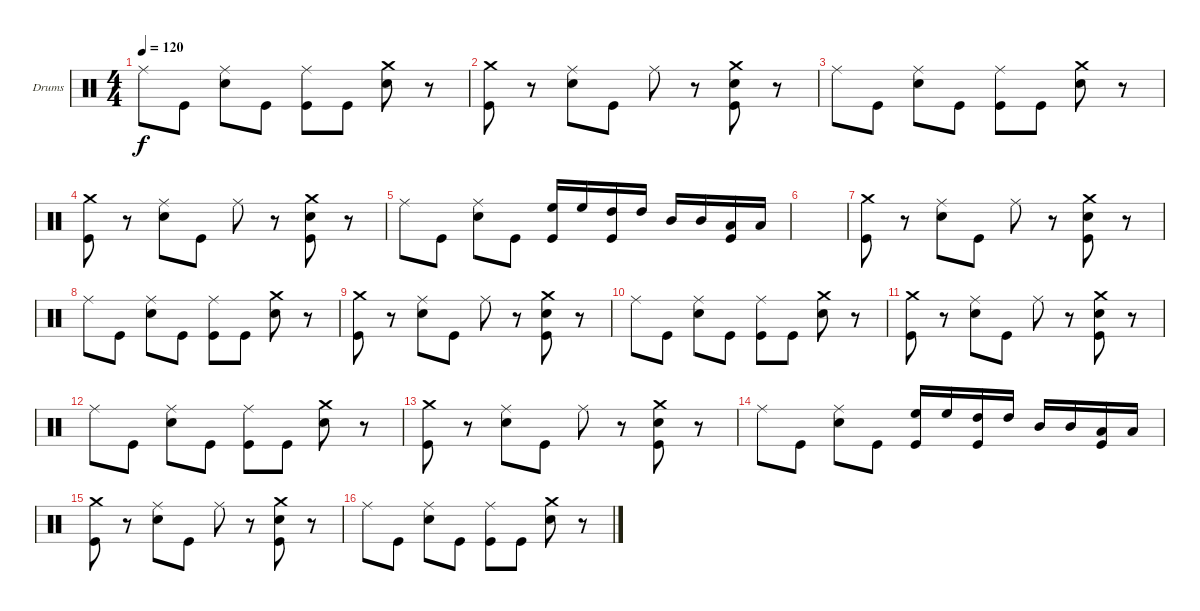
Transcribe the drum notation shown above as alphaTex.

\defaultSystemsLayout 4
\bracketExtendMode groupsimilarinstruments
\firstSystemTrackNameOrientation horizontal
\otherSystemsTrackNameOrientation horizontal
\track ("Drumkit" "Drums") {instrument percussion}
\staff {score}
\articulation defaults
\ts (4 4)
\tempo 120
\clef neutral
\scale
0.333333
\ks c "Ride (middle)".8{dy f} "Kick (hit)".8
("Ride (middle)" "Snare (hit) 2").8 "Kick (hit)".8 ("Ride (middle)" "Kick (hit)").8 "Kick (hit)".8 ("Crash medium (hit)" "Snare (hit) 2").8 r.8 |
\scale
0.333333 ("Crash medium (hit)" "Kick (hit)").8 r.8 ("Ride (middle)" "Snare (hit) 2").8 "Kick (hit)".8 "Ride (middle)".8 r.8 ("Crash medium (hit)" "Snare (hit) 2" "Kick (hit)").8 r.8 |
\scale
0.333333 "Ride (middle)".8 "Kick (hit)".8 ("Ride (middle)" "Snare (hit) 2").8 "Kick (hit)".8 ("Ride (middle)" "Kick (hit)").8 "Kick (hit)".8 ("Crash medium (hit)" "Snare (hit) 2").8 r.8 |
\scale
0.333333 ("Crash medium (hit)" "Kick (hit)").8 r.8 ("Ride (middle)" "Snare (hit) 2").8 "Kick (hit)".8 "Ride (middle)".8 r.8 ("Crash medium (hit)" "Snare (hit) 2" "Kick (hit)").8 r.8 |
\scale
0.333333 "Ride (middle)".8 "Kick (hit)".8 ("Ride (middle)" "Snare (hit) 2").8 "Kick (hit)".8 ("High Floor Tom (hit)" "Kick (hit)").16 "High Floor Tom (hit)".16 ("High Tom (hit)" "Kick (hit)").16 "High Tom (hit)".16 "Mid Tom (hit)".16 "Mid Tom (hit)".16 ("Low Tom (hit)" "Kick (hit)").16 "Low Tom (hit)".16 |
\scale
0.333333 |
\scale
0.333333 ("Crash medium (hit)" "Kick (hit)").8 r.8 ("Ride (middle)" "Snare (hit) 2").8 "Kick (hit)".8 "Ride (middle)".8 r.8 ("Crash medium (hit)" "Snare (hit) 2" "Kick (hit)").8 r.8 |
\scale
0.333333 "Ride (middle)".8 "Kick (hit)".8 ("Ride (middle)" "Snare (hit) 2").8 "Kick (hit)".8 ("Ride (middle)" "Kick (hit)").8 "Kick (hit)".8 ("Crash medium (hit)" "Snare (hit) 2").8 r.8 |
\scale
0.333333 ("Crash medium (hit)" "Kick (hit)").8 r.8 ("Ride (middle)" "Snare (hit) 2").8 "Kick (hit)".8 "Ride (middle)".8 r.8 ("Crash medium (hit)" "Snare (hit) 2" "Kick (hit)").8 r.8 |
\scale
0.333333 "Ride (middle)".8 "Kick (hit)".8 ("Ride (middle)" "Snare (hit) 2").8 "Kick (hit)".8 ("Ride (middle)" "Kick (hit)").8 "Kick (hit)".8 ("Crash medium (hit)" "Snare (hit) 2").8 r.8 |
\scale
0.333333 ("Crash medium (hit)" "Kick (hit)").8 r.8 ("Ride (middle)" "Snare (hit) 2").8 "Kick (hit)".8 "Ride (middle)".8 r.8 ("Crash medium (hit)" "Snare (hit) 2" "Kick (hit)").8 r.8 |
\scale
0.333333 "Ride (middle)".8 "Kick (hit)".8 ("Ride (middle)" "Snare (hit) 2").8 "Kick (hit)".8 ("Ride (middle)" "Kick (hit)").8 "Kick (hit)".8 ("Crash medium (hit)" "Snare (hit) 2").8 r.8 |
\scale
0.333333 ("Crash medium (hit)" "Kick (hit)").8 r.8 ("Ride (middle)" "Snare (hit) 2").8 "Kick (hit)".8 "Ride (middle)".8 r.8 ("Crash medium (hit)" "Snare (hit) 2" "Kick (hit)").8 r.8 |
\scale
0.333333 "Ride (middle)".8 "Kick (hit)".8 ("Ride (middle)" "Snare (hit) 2").8 "Kick (hit)".8 ("High Floor Tom (hit)" "Kick (hit)").16 "High Floor Tom (hit)".16 ("High Tom (hit)" "Kick (hit)").16 "High Tom (hit)".16 "Mid Tom (hit)".16 "Mid Tom (hit)".16 ("Low Tom (hit)" "Kick (hit)").16 "Low Tom (hit)".16 |
\scale
0.333333 ("Crash medium (hit)" "Kick (hit)").8 r.8 ("Ride (middle)" "Snare (hit) 2").8 "Kick (hit)".8 "Ride (middle)".8 r.8 ("Crash medium (hit)" "Snare (hit) 2" "Kick (hit)").8 r.8 |
\scale
0.333333 "Ride (middle)".8 "Kick (hit)".8 ("Ride (middle)" "Snare (hit) 2").8 "Kick (hit)".8 ("Ride (middle)" "Kick (hit)").8 "Kick (hit)".8 ("Crash medium (hit)" "Snare (hit) 2").8 r.8
